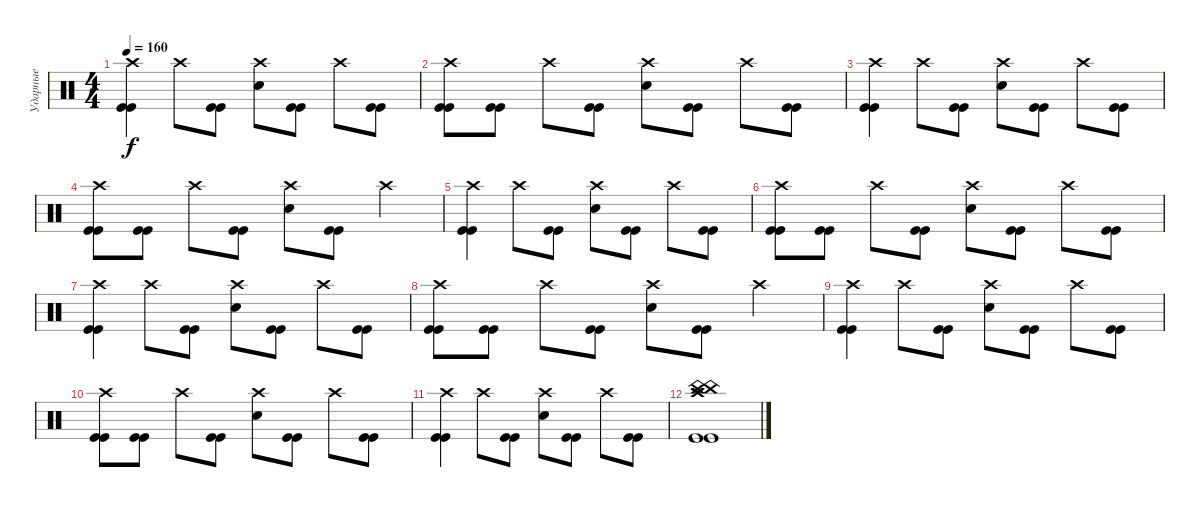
\track ("Ударные" "Ударные") {instrument percussion}
\staff {score}
\articulation defaults
\ts (4 4)
\tempo 160
\clef neutral
\ks c
("Crash high (hit)" "Kick (hit)" "Kick (hit)").4{dy f} "Crash high (hit)".8 ("Kick (hit)" "Kick (hit)").8 ("Crash high (hit)" "Electric Snare (hit)").8 ("Kick (hit)" "Kick (hit)").8 "Crash high (hit)".8 ("Kick (hit)" "Kick (hit)").8 |
("Crash high (hit)" "Kick (hit)" "Kick (hit)").8 ("Kick (hit)" "Kick (hit)").8 "Crash high (hit)".8 ("Kick (hit)" "Kick (hit)").8 ("Crash high (hit)" "Electric Snare (hit)").8 ("Kick (hit)" "Kick (hit)").8 "Crash high (hit)".8 ("Kick (hit)" "Kick (hit)").8 |
("Crash high (hit)" "Kick (hit)" "Kick (hit)").4 "Crash high (hit)".8 ("Kick (hit)" "Kick (hit)").8 ("Crash high (hit)" "Electric Snare (hit)").8 ("Kick (hit)" "Kick (hit)").8 "Crash high (hit)".8 ("Kick (hit)" "Kick (hit)").8 |
("Crash high (hit)" "Kick (hit)" "Kick (hit)").8 ("Kick (hit)" "Kick (hit)").8 "Crash high (hit)".8 ("Kick (hit)" "Kick (hit)").8 ("Crash high (hit)" "Electric Snare (hit)").8 ("Kick (hit)" "Kick (hit)").8 "Crash high (hit)".4 |
("Crash high (hit)" "Kick (hit)" "Kick (hit)").4 "Crash high (hit)".8 ("Kick (hit)" "Kick (hit)").8 ("Crash high (hit)" "Electric Snare (hit)").8 ("Kick (hit)" "Kick (hit)").8 "Crash high (hit)".8 ("Kick (hit)" "Kick (hit)").8 |
("Crash high (hit)" "Kick (hit)" "Kick (hit)").8 ("Kick (hit)" "Kick (hit)").8 "Crash high (hit)".8 ("Kick (hit)" "Kick (hit)").8 ("Crash high (hit)" "Electric Snare (hit)").8 ("Kick (hit)" "Kick (hit)").8 "Crash high (hit)".8 ("Kick (hit)" "Kick (hit)").8 |
("Crash high (hit)" "Kick (hit)" "Kick (hit)").4 "Crash high (hit)".8 ("Kick (hit)" "Kick (hit)").8 ("Crash high (hit)" "Electric Snare (hit)").8 ("Kick (hit)" "Kick (hit)").8 "Crash high (hit)".8 ("Kick (hit)" "Kick (hit)").8 |
("Crash high (hit)" "Kick (hit)" "Kick (hit)").8 ("Kick (hit)" "Kick (hit)").8 "Crash high (hit)".8 ("Kick (hit)" "Kick (hit)").8 ("Crash high (hit)" "Electric Snare (hit)").8 ("Kick (hit)" "Kick (hit)").8 "Crash high (hit)".4 |
("Crash high (hit)" "Kick (hit)" "Kick (hit)").4 "Crash high (hit)".8 ("Kick (hit)" "Kick (hit)").8 ("Crash high (hit)" "Electric Snare (hit)").8 ("Kick (hit)" "Kick (hit)").8 "Crash high (hit)".8 ("Kick (hit)" "Kick (hit)").8 |
("Crash high (hit)" "Kick (hit)" "Kick (hit)").8 ("Kick (hit)" "Kick (hit)").8 "Crash high (hit)".8 ("Kick (hit)" "Kick (hit)").8 ("Crash high (hit)" "Electric Snare (hit)").8 ("Kick (hit)" "Kick (hit)").8 "Crash high (hit)".8 ("Kick (hit)" "Kick (hit)").8 |
("Crash high (hit)" "Kick (hit)" "Kick (hit)").4 "Crash high (hit)".8 ("Kick (hit)" "Kick (hit)").8 ("Crash high (hit)" "Electric Snare (hit)").8 ("Kick (hit)" "Kick (hit)").8 "Crash high (hit)".8 ("Kick (hit)" "Kick (hit)").8 |
("Crash high (hit)" "Crash high (hit)" "China (hit)" "China (hit)" "Kick (hit)" "Kick (hit)").1
